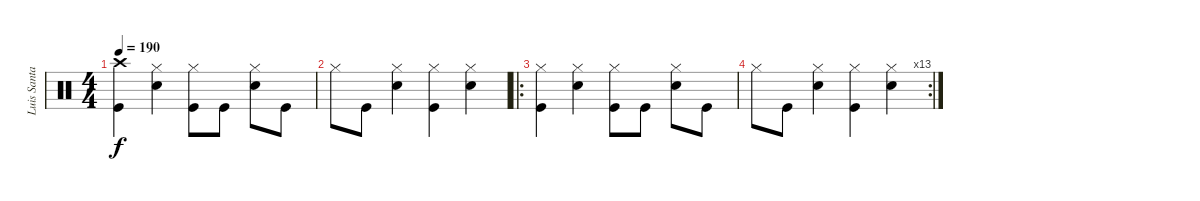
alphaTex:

\track ("Luis Santamarina - Batería" "Luis Santa") {instrument percussion}
\staff {score}
\articulation defaults
\ts (4 4)
\tempo 190
\clef neutral
\ks c
("Crash high (hit)" "Kick (hit)").4{dy f} ("Hi-Hat (closed)" "Electric Snare (hit)").4 ("Hi-Hat (closed)" "Kick (hit)").8 "Kick (hit)".8 ("Hi-Hat (closed)" "Electric Snare (hit)").8 "Kick (hit)".8 |
"Hi-Hat (closed)".8 "Kick (hit)".8 ("Hi-Hat (closed)" "Electric Snare (hit)").4 ("Hi-Hat (closed)" "Kick (hit)").4 ("Hi-Hat (closed)" "Electric Snare (hit)").4 |
\ro
("Hi-Hat (closed)" "Kick (hit)").4 ("Hi-Hat (closed)" "Electric Snare (hit)").4 ("Hi-Hat (closed)" "Kick (hit)").8 "Kick (hit)".8 ("Hi-Hat (closed)" "Electric Snare (hit)").8 "Kick (hit)".8 |
\rc 13 "Hi-Hat (closed)".8 "Kick (hit)".8
("Hi-Hat (closed)" "Electric Snare (hit)").4 ("Hi-Hat (closed)" "Kick (hit)").4 ("Hi-Hat (closed)" "Electric Snare (hit)").4
